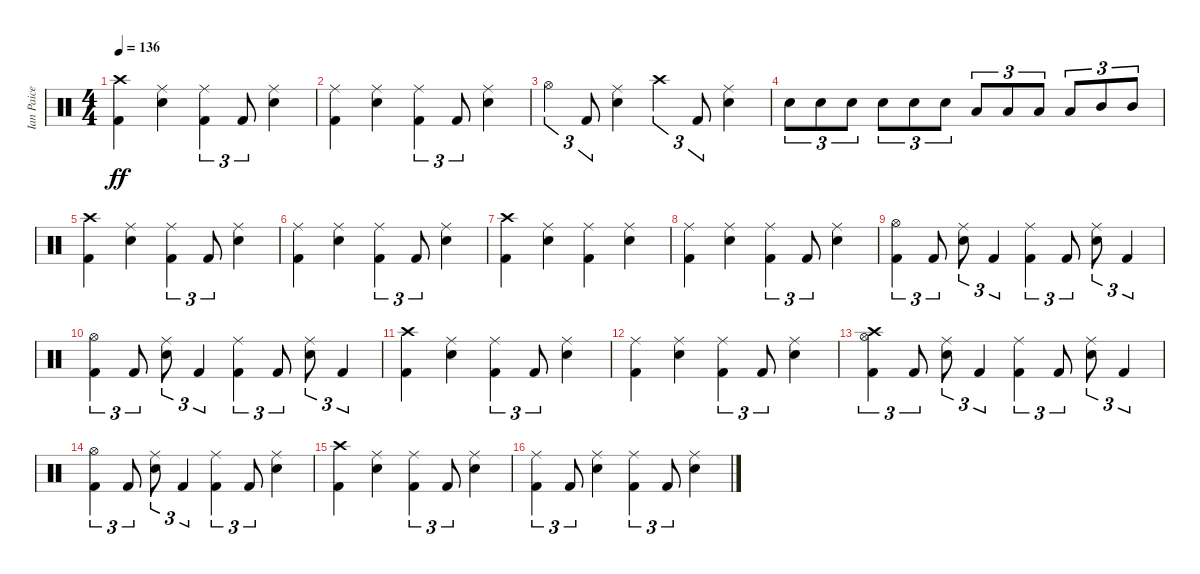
\track ("Ian Paice" "Ian Paice") {instrument percussion}
\staff {score}
\articulation defaults
\ts (4 4)
\tempo 136
\clef neutral
\ks c
("Crash high (hit)" "Kick (hit) 2").4{dy ff} ("Ride (middle)" "Electric Snare (hit)").4 ("Ride (middle)" "Kick (hit) 2").4{tu (3 2)} "Kick (hit) 2".8{tu (3 2)} ("Ride (middle)" "Electric Snare (hit)").4 |
("Ride (middle)" "Kick (hit) 2").4 ("Ride (middle)" "Electric Snare (hit)").4 ("Ride (middle)" "Kick (hit) 2").4{tu (3 2)} "Kick (hit) 2".8{tu (3 2)} ("Ride (middle)" "Electric Snare (hit)").4 |
"Hi-Hat (open)".4{tu (3 2)} "Kick (hit) 2".8{tu (3 2)} ("Ride (middle)" "Electric Snare (hit)").4 "Crash high (hit)".4{tu (3 2)} "Kick (hit) 2".8{tu (3 2)} ("Ride (middle)" "Electric Snare (hit)").4 |
"Electric Snare (hit)".8{tu (3 2)} "Electric Snare (hit)".8{tu (3 2)} "Electric Snare (hit)".8{tu (3 2)} "Electric Snare (hit)".8{tu (3 2)} "Electric Snare (hit)".8{tu (3 2)} "Electric Snare (hit)".8{tu (3 2)} "Low Tom (hit)".8{tu (3 2)} "Low Tom (hit)".8{tu (3 2)} "Low Tom (hit)".8{tu (3 2)} "Low Tom (hit)".8{tu (3 2)} "Mid Tom (hit)".8{tu (3 2)} "Mid Tom (hit)".8{tu (3 2)} |
("Crash high (hit)" "Kick (hit) 2").4 ("Ride (middle)" "Electric Snare (hit)").4 ("Ride (middle)" "Kick (hit) 2").4{tu (3 2)} "Kick (hit) 2".8{tu (3 2)} ("Ride (middle)" "Electric Snare (hit)").4 |
("Ride (middle)" "Kick (hit) 2").4 ("Ride (middle)" "Electric Snare (hit)").4 ("Ride (middle)" "Kick (hit) 2").4{tu (3 2)} "Kick (hit) 2".8{tu (3 2)} ("Ride (middle)" "Electric Snare (hit)").4 |
("Crash high (hit)" "Kick (hit) 2").4 ("Ride (middle)" "Electric Snare (hit)").4 ("Ride (middle)" "Kick (hit) 2").4 ("Ride (middle)" "Electric Snare (hit)").4 |
("Ride (middle)" "Kick (hit) 2").4 ("Ride (middle)" "Electric Snare (hit)").4 ("Ride (middle)" "Kick (hit) 2").4{tu (3 2)} "Kick (hit) 2".8{tu (3 2)} ("Ride (middle)" "Electric Snare (hit)").4 |
("Hi-Hat (open)" "Kick (hit) 2").4{tu (3 2)} "Kick (hit) 2".8{tu (3 2)} ("Ride (middle)" "Electric Snare (hit)").8{tu (3 2)} "Kick (hit) 2".4{tu (3 2)} ("Ride (middle)" "Kick (hit) 2").4{tu (3 2)} "Kick (hit) 2".8{tu (3 2)} ("Ride (middle)" "Electric Snare (hit)").8{tu (3 2)} "Kick (hit) 2".4{tu (3 2)} |
("Hi-Hat (open)" "Kick (hit) 2").4{tu (3 2)} "Kick (hit) 2".8{tu (3 2)} ("Ride (middle)" "Electric Snare (hit)").8{tu (3 2)} "Kick (hit) 2".4{tu (3 2)} ("Ride (middle)" "Kick (hit) 2").4{tu (3 2)} "Kick (hit) 2".8{tu (3 2)} ("Ride (middle)" "Electric Snare (hit)").8{tu (3 2)} "Kick (hit) 2".4{tu (3 2)} |
("Crash high (hit)" "Kick (hit) 2").4 ("Ride (middle)" "Electric Snare (hit)").4 ("Ride (middle)" "Kick (hit) 2").4{tu (3 2)} "Kick (hit) 2".8{tu (3 2)} ("Ride (middle)" "Electric Snare (hit)").4 |
("Ride (middle)" "Kick (hit) 2").4 ("Ride (middle)" "Electric Snare (hit)").4 ("Ride (middle)" "Kick (hit) 2").4{tu (3 2)} "Kick (hit) 2".8{tu (3 2)} ("Ride (middle)" "Electric Snare (hit)").4 |
("Crash high (hit)" "Hi-Hat (open)" "Kick (hit) 2").4{tu (3 2)} "Kick (hit) 2".8{tu (3 2)} ("Ride (middle)" "Electric Snare (hit)").8{tu (3 2)} "Kick (hit) 2".4{tu (3 2)} ("Ride (middle)" "Kick (hit) 2").4{tu (3 2)} "Kick (hit) 2".8{tu (3 2)} ("Ride (middle)" "Electric Snare (hit)").8{tu (3 2)} "Kick (hit) 2".4{tu (3 2)} |
("Hi-Hat (open)" "Kick (hit) 2").4{tu (3 2)} "Kick (hit) 2".8{tu (3 2)} ("Ride (middle)" "Electric Snare (hit)").8{tu (3 2)} "Kick (hit) 2".4{tu (3 2)} ("Ride (middle)" "Kick (hit) 2").4{tu (3 2)} "Kick (hit) 2".8{tu (3 2)} ("Ride (middle)" "Electric Snare (hit)").4 |
("Crash high (hit)" "Kick (hit) 2").4 ("Ride (middle)" "Electric Snare (hit)").4 ("Ride (middle)" "Kick (hit) 2").4{tu (3 2)} "Kick (hit) 2".8{tu (3 2)} ("Ride (middle)" "Electric Snare (hit)").4 |
("Ride (middle)" "Kick (hit) 2").4{tu (3 2)} "Kick (hit) 2".8{tu (3 2)} ("Ride (middle)" "Electric Snare (hit)").4 ("Ride (middle)" "Kick (hit) 2").4{tu (3 2)} "Kick (hit) 2".8{tu (3 2)} ("Ride (middle)" "Electric Snare (hit)").4
